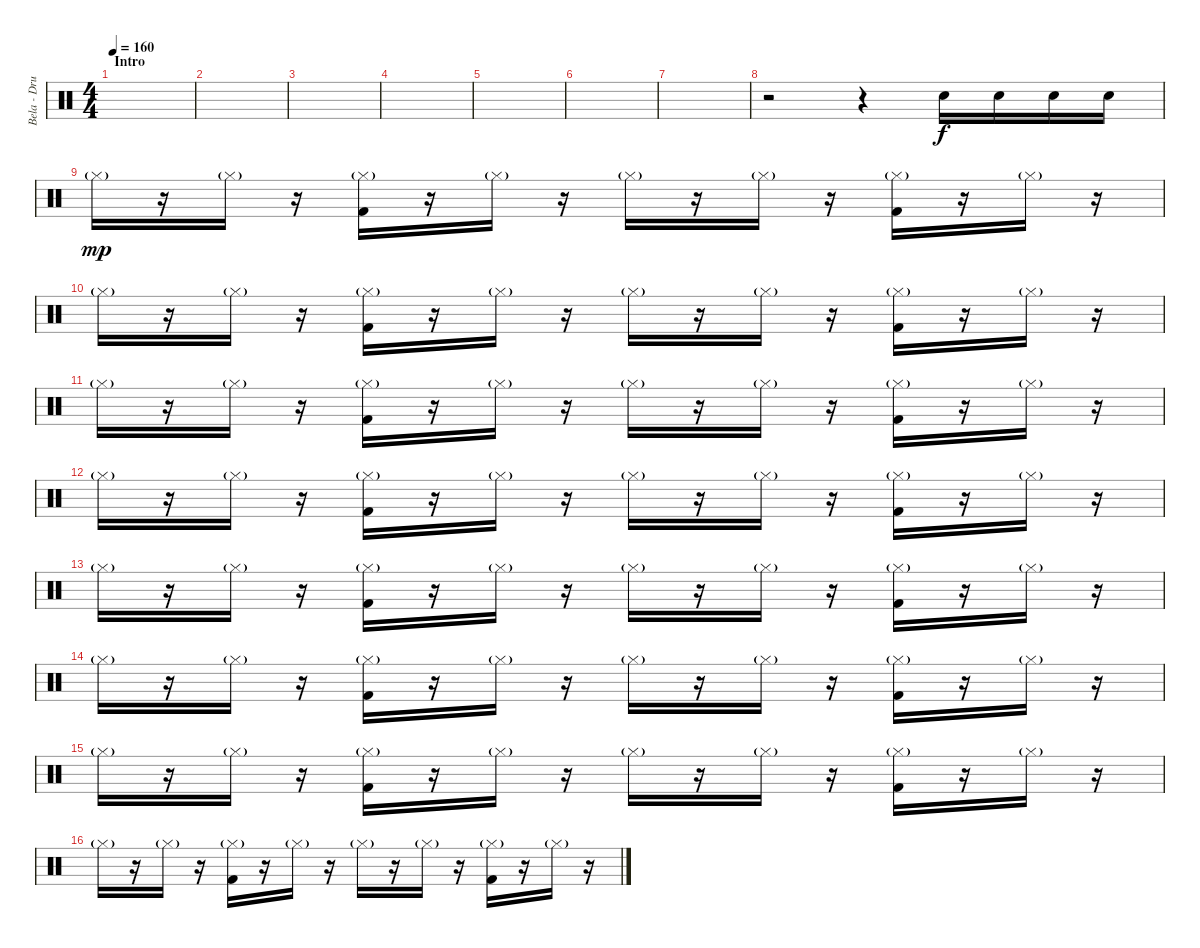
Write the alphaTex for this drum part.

\track ("Bela - Drums" "Bela - Dru") {instrument percussion}
\staff {score}
\articulation defaults
\ts (4 4)
\section ("" "Intro")
\tempo 160
\tempo 140
\tempo 160
\clef neutral
\ks c
|
|
|
|
|
|
|
r.2 r.4 "Electric Snare (hit)".16 "Electric Snare (hit)".16 "Electric Snare (hit)".16 "Electric Snare (hit)".16 |
"Hi-Hat (closed)"{g}.16{dy mp} r.16 "Hi-Hat (closed)"{g}.16 r.16 ("Hi-Hat (closed)"{g} "Kick (hit) 2").16 r.16 "Hi-Hat (closed)"{g}.16 r.16 "Hi-Hat (closed)"{g}.16 r.16 "Hi-Hat (closed)"{g}.16 r.16 ("Hi-Hat (closed)"{g} "Kick (hit) 2").16 r.16 "Hi-Hat (closed)"{g}.16 r.16 |
"Hi-Hat (closed)"{g}.16 r.16 "Hi-Hat (closed)"{g}.16 r.16 ("Hi-Hat (closed)"{g} "Kick (hit) 2").16 r.16 "Hi-Hat (closed)"{g}.16 r.16 "Hi-Hat (closed)"{g}.16 r.16 "Hi-Hat (closed)"{g}.16 r.16 ("Hi-Hat (closed)"{g} "Kick (hit) 2").16 r.16 "Hi-Hat (closed)"{g}.16 r.16 |
"Hi-Hat (closed)"{g}.16 r.16 "Hi-Hat (closed)"{g}.16 r.16 ("Hi-Hat (closed)"{g} "Kick (hit) 2").16 r.16 "Hi-Hat (closed)"{g}.16 r.16 "Hi-Hat (closed)"{g}.16 r.16 "Hi-Hat (closed)"{g}.16 r.16 ("Hi-Hat (closed)"{g} "Kick (hit) 2").16 r.16 "Hi-Hat (closed)"{g}.16 r.16 |
"Hi-Hat (closed)"{g}.16 r.16 "Hi-Hat (closed)"{g}.16 r.16 ("Hi-Hat (closed)"{g} "Kick (hit) 2").16 r.16 "Hi-Hat (closed)"{g}.16 r.16 "Hi-Hat (closed)"{g}.16 r.16 "Hi-Hat (closed)"{g}.16 r.16 ("Hi-Hat (closed)"{g} "Kick (hit) 2").16 r.16 "Hi-Hat (closed)"{g}.16 r.16 |
"Hi-Hat (closed)"{g}.16 r.16 "Hi-Hat (closed)"{g}.16 r.16 ("Hi-Hat (closed)"{g} "Kick (hit) 2").16 r.16 "Hi-Hat (closed)"{g}.16 r.16 "Hi-Hat (closed)"{g}.16 r.16 "Hi-Hat (closed)"{g}.16 r.16 ("Hi-Hat (closed)"{g} "Kick (hit) 2").16 r.16 "Hi-Hat (closed)"{g}.16 r.16 |
"Hi-Hat (closed)"{g}.16 r.16 "Hi-Hat (closed)"{g}.16 r.16 ("Hi-Hat (closed)"{g} "Kick (hit) 2").16 r.16 "Hi-Hat (closed)"{g}.16 r.16 "Hi-Hat (closed)"{g}.16 r.16 "Hi-Hat (closed)"{g}.16 r.16 ("Hi-Hat (closed)"{g} "Kick (hit) 2").16 r.16 "Hi-Hat (closed)"{g}.16 r.16 |
"Hi-Hat (closed)"{g}.16 r.16 "Hi-Hat (closed)"{g}.16 r.16 ("Hi-Hat (closed)"{g} "Kick (hit) 2").16 r.16 "Hi-Hat (closed)"{g}.16 r.16 "Hi-Hat (closed)"{g}.16 r.16 "Hi-Hat (closed)"{g}.16 r.16 ("Hi-Hat (closed)"{g} "Kick (hit) 2").16 r.16 "Hi-Hat (closed)"{g}.16 r.16 |
"Hi-Hat (closed)"{g}.16 r.16 "Hi-Hat (closed)"{g}.16 r.16 ("Hi-Hat (closed)"{g} "Kick (hit) 2").16 r.16 "Hi-Hat (closed)"{g}.16 r.16 "Hi-Hat (closed)"{g}.16 r.16 "Hi-Hat (closed)"{g}.16 r.16 ("Hi-Hat (closed)"{g} "Kick (hit) 2").16 r.16 "Hi-Hat (closed)"{g}.16 r.16
